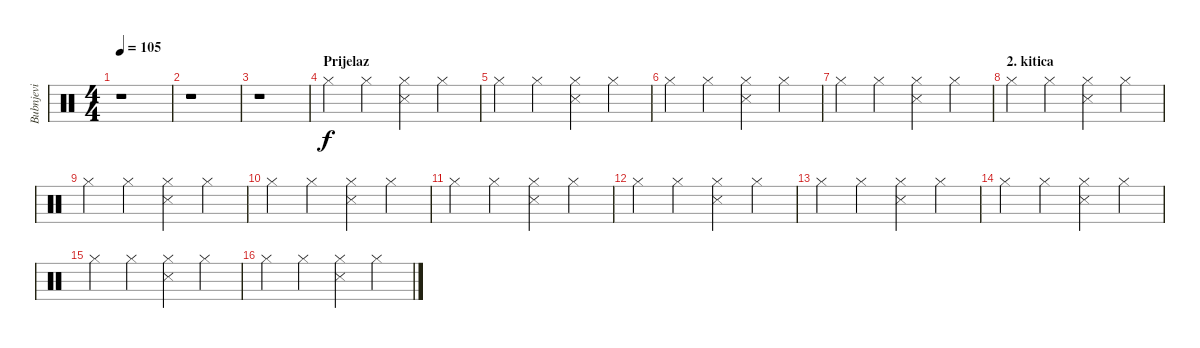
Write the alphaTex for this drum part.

\track ("Bubnjevi" "Bubnjevi") {instrument percussion}
\staff {score}
\articulation defaults
\ts (4 4)
\tempo 105
\clef neutral
\ks c
r.1{dy f} |
r.1 |
r.1 |
\section ("" "Prijelaz")
"Hi-Hat (closed)".4 "Hi-Hat (closed)".4 ("Snare (side stick) 3" "Hi-Hat (closed)").4 "Hi-Hat (closed)".4 |
"Hi-Hat (closed)".4 "Hi-Hat (closed)".4 ("Snare (side stick) 3" "Hi-Hat (closed)").4 "Hi-Hat (closed)".4 |
"Hi-Hat (closed)".4 "Hi-Hat (closed)".4 ("Snare (side stick) 3" "Hi-Hat (closed)").4 "Hi-Hat (closed)".4 |
"Hi-Hat (closed)".4 "Hi-Hat (closed)".4 ("Snare (side stick) 3" "Hi-Hat (closed)").4 "Hi-Hat (closed)".4 |
\section ("" "2. kitica")
"Hi-Hat (closed)".4 "Hi-Hat (closed)".4 ("Snare (side stick) 3" "Hi-Hat (closed)").4 "Hi-Hat (closed)".4 |
"Hi-Hat (closed)".4 "Hi-Hat (closed)".4 ("Snare (side stick) 3" "Hi-Hat (closed)").4 "Hi-Hat (closed)".4 |
"Hi-Hat (closed)".4 "Hi-Hat (closed)".4 ("Snare (side stick) 3" "Hi-Hat (closed)").4 "Hi-Hat (closed)".4 |
"Hi-Hat (closed)".4 "Hi-Hat (closed)".4 ("Snare (side stick) 3" "Hi-Hat (closed)").4 "Hi-Hat (closed)".4 |
"Hi-Hat (closed)".4 "Hi-Hat (closed)".4 ("Snare (side stick) 3" "Hi-Hat (closed)").4 "Hi-Hat (closed)".4 |
"Hi-Hat (closed)".4 "Hi-Hat (closed)".4 ("Snare (side stick) 3" "Hi-Hat (closed)").4 "Hi-Hat (closed)".4 |
"Hi-Hat (closed)".4 "Hi-Hat (closed)".4 ("Snare (side stick) 3" "Hi-Hat (closed)").4 "Hi-Hat (closed)".4 |
"Hi-Hat (closed)".4 "Hi-Hat (closed)".4 ("Snare (side stick) 3" "Hi-Hat (closed)").4 "Hi-Hat (closed)".4 |
"Hi-Hat (closed)".4 "Hi-Hat (closed)".4 ("Snare (side stick) 3" "Hi-Hat (closed)").4 "Hi-Hat (closed)".4
